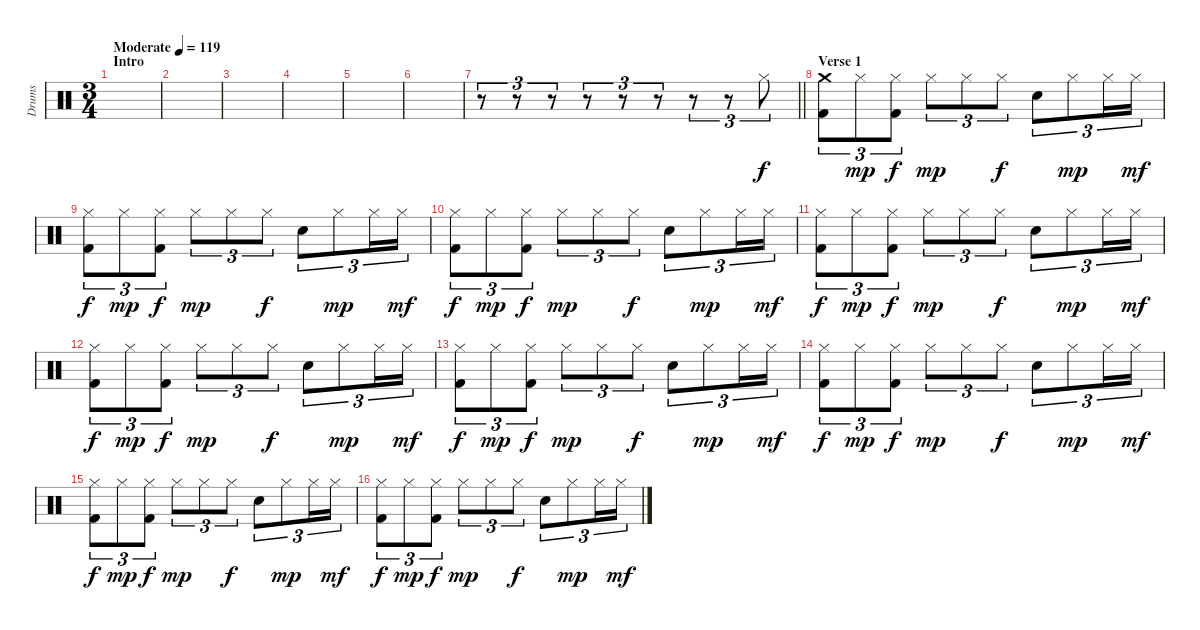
\track ("Drums" "Drums") {instrument percussion}
\staff {score}
\articulation defaults
\ts (3 4)
\section ("" "Intro")
\tempo (119 "Moderate")
\clef neutral
\ks c
|
|
|
|
|
|
\barLineRight lightlight
r.8{tu (3 2)} r.8{tu (3 2)} r.8{tu (3 2)} r.8{tu (3 2)} r.8{tu (3 2)} r.8{tu (3 2)} r.8{tu (3 2)} r.8{tu (3 2)} "Hi-Hat (closed)".8{tu (3 2)} |
\section ("" "Verse 1")
("Crash medium (hit)" "Kick (hit) 2").8{tu (3 2)} "Hi-Hat (closed)".8{tu (3 2) dy mp} ("Hi-Hat (closed)" "Kick (hit) 2").8{tu (3 2) dy f} "Hi-Hat (closed)".8{tu (3 2) dy mp} "Hi-Hat (closed)".8{tu (3 2)} "Hi-Hat (closed)".8{tu (3 2) dy f} "Electric Snare (hit)".8{tu (3 2)} "Hi-Hat (closed)".8{tu (3 2) dy mp} "Hi-Hat (closed)".16{tu (3 2)} "Hi-Hat (closed)".16{tu (3 2) dy mf} |
("Hi-Hat (closed)" "Kick (hit) 2").8{tu (3 2) dy f} "Hi-Hat (closed)".8{tu (3 2) dy mp} ("Hi-Hat (closed)" "Kick (hit) 2").8{tu (3 2) dy f} "Hi-Hat (closed)".8{tu (3 2) dy mp} "Hi-Hat (closed)".8{tu (3 2)} "Hi-Hat (closed)".8{tu (3 2) dy f} "Electric Snare (hit)".8{tu (3 2)} "Hi-Hat (closed)".8{tu (3 2) dy mp} "Hi-Hat (closed)".16{tu (3 2)} "Hi-Hat (closed)".16{tu (3 2) dy mf} |
("Hi-Hat (closed)" "Kick (hit) 2").8{tu (3 2) dy f} "Hi-Hat (closed)".8{tu (3 2) dy mp} ("Hi-Hat (closed)" "Kick (hit) 2").8{tu (3 2) dy f} "Hi-Hat (closed)".8{tu (3 2) dy mp} "Hi-Hat (closed)".8{tu (3 2)} "Hi-Hat (closed)".8{tu (3 2) dy f} "Electric Snare (hit)".8{tu (3 2)} "Hi-Hat (closed)".8{tu (3 2) dy mp} "Hi-Hat (closed)".16{tu (3 2)} "Hi-Hat (closed)".16{tu (3 2) dy mf} |
("Hi-Hat (closed)" "Kick (hit) 2").8{tu (3 2) dy f} "Hi-Hat (closed)".8{tu (3 2) dy mp} ("Hi-Hat (closed)" "Kick (hit) 2").8{tu (3 2) dy f} "Hi-Hat (closed)".8{tu (3 2) dy mp} "Hi-Hat (closed)".8{tu (3 2)} "Hi-Hat (closed)".8{tu (3 2) dy f} "Electric Snare (hit)".8{tu (3 2)} "Hi-Hat (closed)".8{tu (3 2) dy mp} "Hi-Hat (closed)".16{tu (3 2)} "Hi-Hat (closed)".16{tu (3 2) dy mf} |
("Hi-Hat (closed)" "Kick (hit) 2").8{tu (3 2) dy f} "Hi-Hat (closed)".8{tu (3 2) dy mp} ("Hi-Hat (closed)" "Kick (hit) 2").8{tu (3 2) dy f} "Hi-Hat (closed)".8{tu (3 2) dy mp} "Hi-Hat (closed)".8{tu (3 2)} "Hi-Hat (closed)".8{tu (3 2) dy f} "Electric Snare (hit)".8{tu (3 2)} "Hi-Hat (closed)".8{tu (3 2) dy mp} "Hi-Hat (closed)".16{tu (3 2)} "Hi-Hat (closed)".16{tu (3 2) dy mf} |
("Hi-Hat (closed)" "Kick (hit) 2").8{tu (3 2) dy f} "Hi-Hat (closed)".8{tu (3 2) dy mp} ("Hi-Hat (closed)" "Kick (hit) 2").8{tu (3 2) dy f} "Hi-Hat (closed)".8{tu (3 2) dy mp} "Hi-Hat (closed)".8{tu (3 2)} "Hi-Hat (closed)".8{tu (3 2) dy f} "Electric Snare (hit)".8{tu (3 2)} "Hi-Hat (closed)".8{tu (3 2) dy mp} "Hi-Hat (closed)".16{tu (3 2)} "Hi-Hat (closed)".16{tu (3 2) dy mf} |
("Hi-Hat (closed)" "Kick (hit) 2").8{tu (3 2) dy f} "Hi-Hat (closed)".8{tu (3 2) dy mp} ("Hi-Hat (closed)" "Kick (hit) 2").8{tu (3 2) dy f} "Hi-Hat (closed)".8{tu (3 2) dy mp} "Hi-Hat (closed)".8{tu (3 2)} "Hi-Hat (closed)".8{tu (3 2) dy f} "Electric Snare (hit)".8{tu (3 2)} "Hi-Hat (closed)".8{tu (3 2) dy mp} "Hi-Hat (closed)".16{tu (3 2)} "Hi-Hat (closed)".16{tu (3 2) dy mf} |
("Hi-Hat (closed)" "Kick (hit) 2").8{tu (3 2) dy f} "Hi-Hat (closed)".8{tu (3 2) dy mp} ("Hi-Hat (closed)" "Kick (hit) 2").8{tu (3 2) dy f} "Hi-Hat (closed)".8{tu (3 2) dy mp} "Hi-Hat (closed)".8{tu (3 2)} "Hi-Hat (closed)".8{tu (3 2) dy f} "Electric Snare (hit)".8{tu (3 2)} "Hi-Hat (closed)".8{tu (3 2) dy mp} "Hi-Hat (closed)".16{tu (3 2)} "Hi-Hat (closed)".16{tu (3 2) dy mf} |
("Hi-Hat (closed)" "Kick (hit) 2").8{tu (3 2) dy f} "Hi-Hat (closed)".8{tu (3 2) dy mp} ("Hi-Hat (closed)" "Kick (hit) 2").8{tu (3 2) dy f} "Hi-Hat (closed)".8{tu (3 2) dy mp} "Hi-Hat (closed)".8{tu (3 2)} "Hi-Hat (closed)".8{tu (3 2) dy f} "Electric Snare (hit)".8{tu (3 2)} "Hi-Hat (closed)".8{tu (3 2) dy mp} "Hi-Hat (closed)".16{tu (3 2)} "Hi-Hat (closed)".16{tu (3 2) dy mf}
